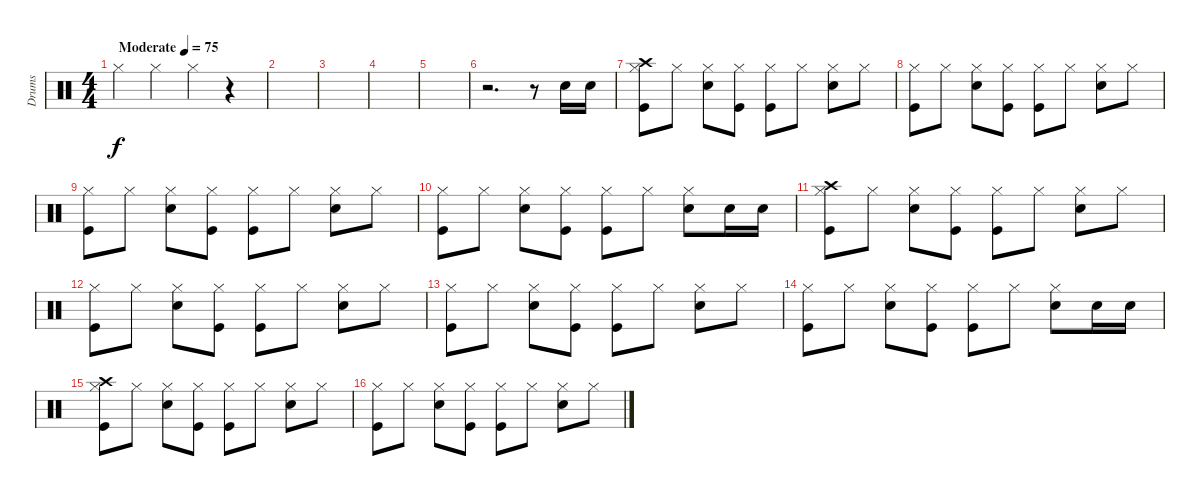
\track ("Drums" "Drums") {instrument percussion}
\staff {score}
\articulation defaults
\ts (4 4)
\tempo (75 "Moderate")
\clef neutral
\ks c "Hi-Hat (closed)".4{dy f} "Hi-Hat (closed)".4 "Hi-Hat (closed)".4
r.4 |
|
|
|
|
r.2{d} r.8 "Snare (hit) 2".16 "Snare (hit) 2".16 |
("Crash high (hit)" "Hi-Hat (closed)" "Kick (hit)").8 "Hi-Hat (closed)".8 ("Hi-Hat (closed)" "Snare (hit) 2").8 ("Hi-Hat (closed)" "Kick (hit)").8 ("Hi-Hat (closed)" "Kick (hit)").8 "Hi-Hat (closed)".8 ("Hi-Hat (closed)" "Snare (hit) 2").8 "Hi-Hat (closed)".8 |
("Hi-Hat (closed)" "Kick (hit)").8 "Hi-Hat (closed)".8 ("Hi-Hat (closed)" "Snare (hit) 2").8 ("Hi-Hat (closed)" "Kick (hit)").8 ("Hi-Hat (closed)" "Kick (hit)").8 "Hi-Hat (closed)".8 ("Hi-Hat (closed)" "Snare (hit) 2").8 "Hi-Hat (closed)".8 |
("Hi-Hat (closed)" "Kick (hit)").8 "Hi-Hat (closed)".8 ("Hi-Hat (closed)" "Snare (hit) 2").8 ("Hi-Hat (closed)" "Kick (hit)").8 ("Hi-Hat (closed)" "Kick (hit)").8 "Hi-Hat (closed)".8 ("Hi-Hat (closed)" "Snare (hit) 2").8 "Hi-Hat (closed)".8 |
("Hi-Hat (closed)" "Kick (hit)").8 "Hi-Hat (closed)".8 ("Hi-Hat (closed)" "Snare (hit) 2").8 ("Hi-Hat (closed)" "Kick (hit)").8 ("Hi-Hat (closed)" "Kick (hit)").8 "Hi-Hat (closed)".8 ("Hi-Hat (closed)" "Snare (hit) 2").8 "Snare (hit) 2".16 "Snare (hit) 2".16 |
("Crash high (hit)" "Hi-Hat (closed)" "Kick (hit)").8 "Hi-Hat (closed)".8 ("Hi-Hat (closed)" "Snare (hit) 2").8 ("Hi-Hat (closed)" "Kick (hit)").8 ("Hi-Hat (closed)" "Kick (hit)").8 "Hi-Hat (closed)".8 ("Hi-Hat (closed)" "Snare (hit) 2").8 "Hi-Hat (closed)".8 |
("Hi-Hat (closed)" "Kick (hit)").8 "Hi-Hat (closed)".8 ("Hi-Hat (closed)" "Snare (hit) 2").8 ("Hi-Hat (closed)" "Kick (hit)").8 ("Hi-Hat (closed)" "Kick (hit)").8 "Hi-Hat (closed)".8 ("Hi-Hat (closed)" "Snare (hit) 2").8 "Hi-Hat (closed)".8 |
("Hi-Hat (closed)" "Kick (hit)").8 "Hi-Hat (closed)".8 ("Hi-Hat (closed)" "Snare (hit) 2").8 ("Hi-Hat (closed)" "Kick (hit)").8 ("Hi-Hat (closed)" "Kick (hit)").8 "Hi-Hat (closed)".8 ("Hi-Hat (closed)" "Snare (hit) 2").8 "Hi-Hat (closed)".8 |
("Hi-Hat (closed)" "Kick (hit)").8 "Hi-Hat (closed)".8 ("Hi-Hat (closed)" "Snare (hit) 2").8 ("Hi-Hat (closed)" "Kick (hit)").8 ("Hi-Hat (closed)" "Kick (hit)").8 "Hi-Hat (closed)".8 ("Hi-Hat (closed)" "Snare (hit) 2").8 "Snare (hit) 2".16 "Snare (hit) 2".16 |
("Crash high (hit)" "Hi-Hat (closed)" "Kick (hit)").8 "Hi-Hat (closed)".8 ("Hi-Hat (closed)" "Snare (hit) 2").8 ("Hi-Hat (closed)" "Kick (hit)").8 ("Hi-Hat (closed)" "Kick (hit)").8 "Hi-Hat (closed)".8 ("Hi-Hat (closed)" "Snare (hit) 2").8 "Hi-Hat (closed)".8 |
("Hi-Hat (closed)" "Kick (hit)").8 "Hi-Hat (closed)".8 ("Hi-Hat (closed)" "Snare (hit) 2").8 ("Hi-Hat (closed)" "Kick (hit)").8 ("Hi-Hat (closed)" "Kick (hit)").8 "Hi-Hat (closed)".8 ("Hi-Hat (closed)" "Snare (hit) 2").8 "Hi-Hat (closed)".8
